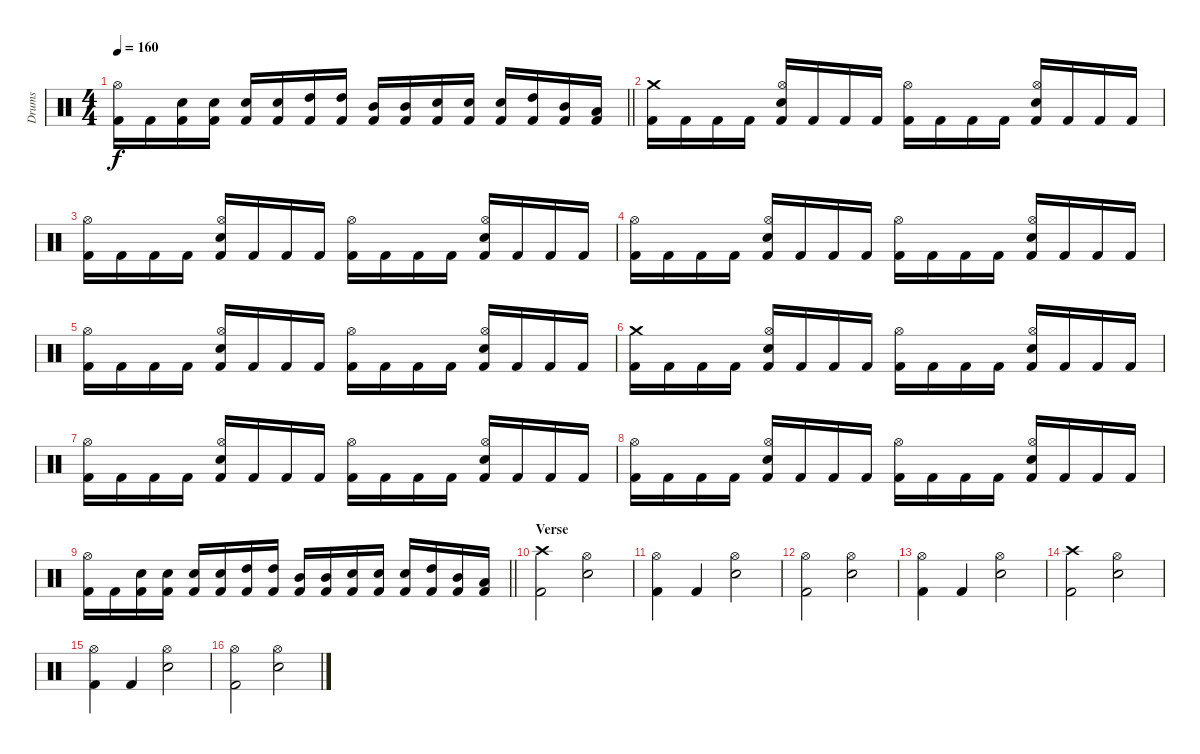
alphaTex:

\track ("Drums" "Drums") {instrument percussion}
\staff {score}
\articulation defaults
\ts (4 4)
\tempo 160
\clef neutral
\barLineRight lightlight
\ks c
("Kick (hit) 2" "Hi-Hat (open)").16{dy f} "Kick (hit) 2".16 ("Kick (hit) 2" "Electric Snare (hit)").16 ("Kick (hit) 2" "Electric Snare (hit)").16 ("Kick (hit) 2" "Electric Snare (hit)").16 ("Kick (hit) 2" "Electric Snare (hit)").16 ("Kick (hit) 2" "High Tom (hit)").16 ("Kick (hit) 2" "High Tom (hit)").16 ("Kick (hit) 2" "Mid Tom (hit)").16 ("Kick (hit) 2" "Mid Tom (hit)").16 ("Kick (hit) 2" "Electric Snare (hit)").16 ("Kick (hit) 2" "Electric Snare (hit)").16 ("Kick (hit) 2" "Electric Snare (hit)").16 ("Kick (hit) 2" "High Tom (hit)").16 ("Kick (hit) 2" "Mid Tom (hit)").16 ("Kick (hit) 2" "Low Tom (hit)").16 |
("Kick (hit) 2" "Crash medium (hit)").16 "Kick (hit) 2".16 "Kick (hit) 2".16 "Kick (hit) 2".16 ("Kick (hit) 2" "Electric Snare (hit)" "Hi-Hat (open)").16 "Kick (hit) 2".16 "Kick (hit) 2".16 "Kick (hit) 2".16 ("Kick (hit) 2" "Hi-Hat (open)").16 "Kick (hit) 2".16 "Kick (hit) 2".16 "Kick (hit) 2".16 ("Kick (hit) 2" "Electric Snare (hit)" "Hi-Hat (open)").16 "Kick (hit) 2".16 "Kick (hit) 2".16 "Kick (hit) 2".16 |
("Kick (hit) 2" "Hi-Hat (open)").16 "Kick (hit) 2".16 "Kick (hit) 2".16 "Kick (hit) 2".16 ("Kick (hit) 2" "Electric Snare (hit)" "Hi-Hat (open)").16 "Kick (hit) 2".16 "Kick (hit) 2".16 "Kick (hit) 2".16 ("Kick (hit) 2" "Hi-Hat (open)").16 "Kick (hit) 2".16 "Kick (hit) 2".16 "Kick (hit) 2".16 ("Kick (hit) 2" "Electric Snare (hit)" "Hi-Hat (open)").16 "Kick (hit) 2".16 "Kick (hit) 2".16 "Kick (hit) 2".16 |
("Kick (hit) 2" "Hi-Hat (open)").16 "Kick (hit) 2".16 "Kick (hit) 2".16 "Kick (hit) 2".16 ("Kick (hit) 2" "Electric Snare (hit)" "Hi-Hat (open)").16 "Kick (hit) 2".16 "Kick (hit) 2".16 "Kick (hit) 2".16 ("Kick (hit) 2" "Hi-Hat (open)").16 "Kick (hit) 2".16 "Kick (hit) 2".16 "Kick (hit) 2".16 ("Kick (hit) 2" "Electric Snare (hit)" "Hi-Hat (open)").16 "Kick (hit) 2".16 "Kick (hit) 2".16 "Kick (hit) 2".16 |
("Kick (hit) 2" "Hi-Hat (open)").16 "Kick (hit) 2".16 "Kick (hit) 2".16 "Kick (hit) 2".16 ("Kick (hit) 2" "Electric Snare (hit)" "Hi-Hat (open)").16 "Kick (hit) 2".16 "Kick (hit) 2".16 "Kick (hit) 2".16 ("Kick (hit) 2" "Hi-Hat (open)").16 "Kick (hit) 2".16 "Kick (hit) 2".16 "Kick (hit) 2".16 ("Kick (hit) 2" "Electric Snare (hit)" "Hi-Hat (open)").16 "Kick (hit) 2".16 "Kick (hit) 2".16 "Kick (hit) 2".16 |
("Kick (hit) 2" "Crash medium (hit)").16 "Kick (hit) 2".16 "Kick (hit) 2".16 "Kick (hit) 2".16 ("Kick (hit) 2" "Electric Snare (hit)" "Hi-Hat (open)").16 "Kick (hit) 2".16 "Kick (hit) 2".16 "Kick (hit) 2".16 ("Kick (hit) 2" "Hi-Hat (open)").16 "Kick (hit) 2".16 "Kick (hit) 2".16 "Kick (hit) 2".16 ("Kick (hit) 2" "Electric Snare (hit)" "Hi-Hat (open)").16 "Kick (hit) 2".16 "Kick (hit) 2".16 "Kick (hit) 2".16 |
("Kick (hit) 2" "Hi-Hat (open)").16 "Kick (hit) 2".16 "Kick (hit) 2".16 "Kick (hit) 2".16 ("Kick (hit) 2" "Electric Snare (hit)" "Hi-Hat (open)").16 "Kick (hit) 2".16 "Kick (hit) 2".16 "Kick (hit) 2".16 ("Kick (hit) 2" "Hi-Hat (open)").16 "Kick (hit) 2".16 "Kick (hit) 2".16 "Kick (hit) 2".16 ("Kick (hit) 2" "Electric Snare (hit)" "Hi-Hat (open)").16 "Kick (hit) 2".16 "Kick (hit) 2".16 "Kick (hit) 2".16 |
("Kick (hit) 2" "Hi-Hat (open)").16 "Kick (hit) 2".16 "Kick (hit) 2".16 "Kick (hit) 2".16 ("Kick (hit) 2" "Electric Snare (hit)" "Hi-Hat (open)").16 "Kick (hit) 2".16 "Kick (hit) 2".16 "Kick (hit) 2".16 ("Kick (hit) 2" "Hi-Hat (open)").16 "Kick (hit) 2".16 "Kick (hit) 2".16 "Kick (hit) 2".16 ("Kick (hit) 2" "Electric Snare (hit)" "Hi-Hat (open)").16 "Kick (hit) 2".16 "Kick (hit) 2".16 "Kick (hit) 2".16 |
\barLineRight lightlight
("Kick (hit) 2" "Hi-Hat (open)").16 "Kick (hit) 2".16 ("Kick (hit) 2" "Electric Snare (hit)").16 ("Kick (hit) 2" "Electric Snare (hit)").16 ("Kick (hit) 2" "Electric Snare (hit)").16 ("Kick (hit) 2" "Electric Snare (hit)").16 ("Kick (hit) 2" "High Tom (hit)").16 ("Kick (hit) 2" "High Tom (hit)").16 ("Kick (hit) 2" "Mid Tom (hit)").16 ("Kick (hit) 2" "Mid Tom (hit)").16 ("Kick (hit) 2" "Electric Snare (hit)").16 ("Kick (hit) 2" "Electric Snare (hit)").16 ("Kick (hit) 2" "Electric Snare (hit)").16 ("Kick (hit) 2" "High Tom (hit)").16 ("Kick (hit) 2" "Mid Tom (hit)").16 ("Kick (hit) 2" "Low Tom (hit)").16 |
\section ("" "Verse")
("Crash high (hit)" "Kick (hit) 2").2 ("Hi-Hat (open)" "Electric Snare (hit)").2 |
("Hi-Hat (open)" "Kick (hit) 2").4 "Kick (hit) 2".4 ("Hi-Hat (open)" "Electric Snare (hit)").2 |
("Hi-Hat (open)" "Kick (hit) 2").2 ("Hi-Hat (open)" "Electric Snare (hit)").2 |
("Hi-Hat (open)" "Kick (hit) 2").4 "Kick (hit) 2".4 ("Hi-Hat (open)" "Electric Snare (hit)").2 |
("Crash high (hit)" "Kick (hit) 2").2 ("Hi-Hat (open)" "Electric Snare (hit)").2 |
("Hi-Hat (open)" "Kick (hit) 2").4 "Kick (hit) 2".4 ("Hi-Hat (open)" "Electric Snare (hit)").2 |
("Hi-Hat (open)" "Kick (hit) 2").2 ("Hi-Hat (open)" "Electric Snare (hit)").2
